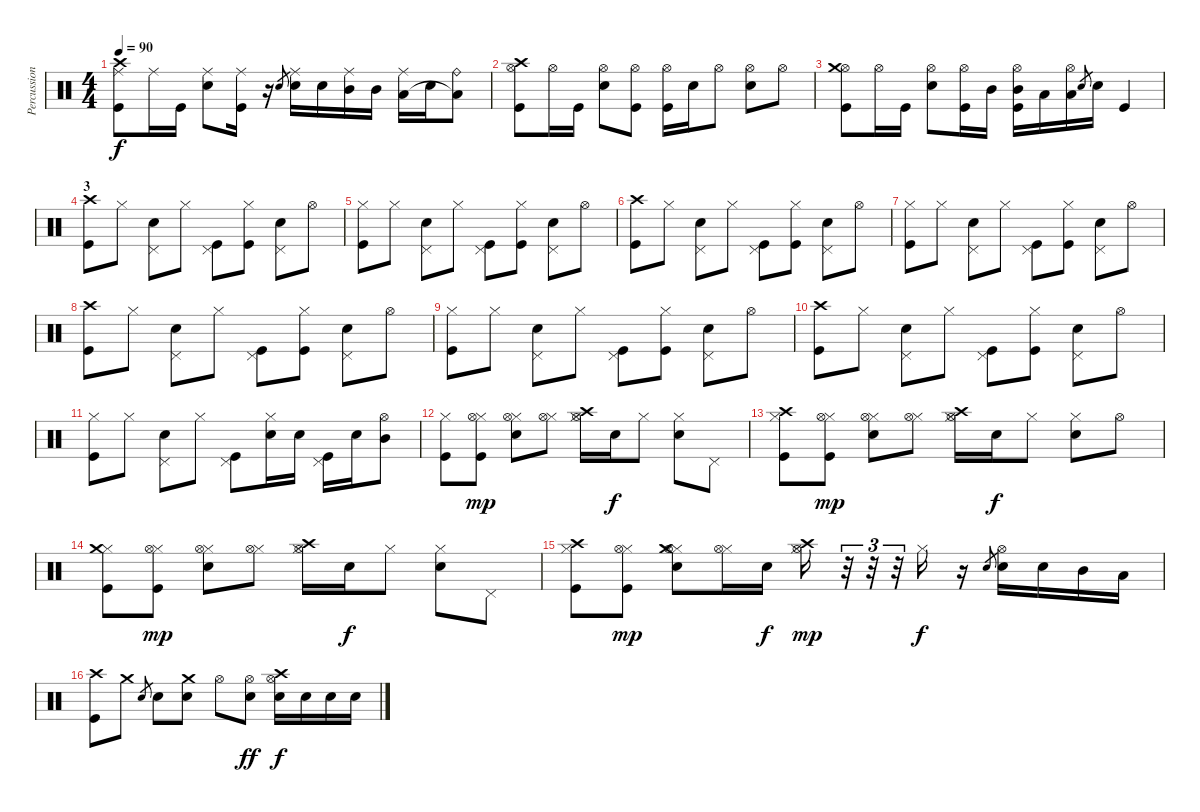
\track ("Percussions" "Percussion") {instrument percussion}
\staff {score}
\articulation defaults
\ts (4 4)
\tempo 90
\clef neutral
\ks c
("Ride (middle)" "Crash high (hit)" "Kick (hit)").8{dy f} "Ride (middle)".16 "Kick (hit)".16 ("Ride (middle)" "Snare (hit) 2").8 ("Ride (middle)" "Kick (hit)").16 r.16 "Snare (hit) 2".8{gr} ("Ride (middle)" "Snare (hit) 2").16 "Snare (hit) 2".16 ("Ride (middle)" "Mid Tom (hit)").16 "Mid Tom (hit)".16 ("Ride (middle)" "Low Tom (hit)").16 "Snare (hit) 2".16 ("Ride (bell)" "Low Tom (hit)"{t}).8 |
("Hi-Hat (open)" "Crash high (hit)" "Kick (hit)").8 "Hi-Hat (open)".16 "Kick (hit)".16 ("Hi-Hat (open)" "Snare (hit) 2").8 ("Hi-Hat (open)" "Kick (hit)").8 ("Hi-Hat (open)" "Kick (hit)").16 "Snare (hit) 2".16 "Hi-Hat (open)".8 ("Hi-Hat (open)" "Snare (hit) 2").8 "Hi-Hat (open)".8 |
("Hi-Hat (open)" "Crash medium (hit)" "Kick (hit)").8 "Hi-Hat (open)".16 "Kick (hit)".16 ("Hi-Hat (open)" "Snare (hit) 2").8 ("Hi-Hat (open)" "Kick (hit)").16 "Mid Tom (hit)".16 ("Hi-Hat (open)" "Mid Tom (hit)" "Kick (hit)").16 "Low Tom (hit)".16 ("Hi-Hat (open)" "Low Tom (hit)").16 "Snare (hit) 2".8{gr} "Snare (hit) 2".16 "Kick (hit)".4 |
\section ("" "3")
("Crash high (hit)" "Kick (hit)").8 "Hi-Hat (closed)".8 ("Pedal Hi-Hat (hit)" "Snare (hit) 2").8 "Hi-Hat (closed)".8 ("Pedal Hi-Hat (hit)" "Kick (hit)").8 ("Hi-Hat (closed)" "Kick (hit)").8 ("Pedal Hi-Hat (hit)" "Snare (hit) 2").8 "Hi-Hat (open)".8 |
("Hi-Hat (closed)" "Kick (hit)").8 "Hi-Hat (closed)".8 ("Pedal Hi-Hat (hit)" "Snare (hit) 2").8 "Hi-Hat (closed)".8 ("Pedal Hi-Hat (hit)" "Kick (hit)").8 ("Hi-Hat (closed)" "Kick (hit)").8 ("Pedal Hi-Hat (hit)" "Snare (hit) 2").8 "Hi-Hat (open)".8 |
("Crash high (hit)" "Kick (hit)").8 "Hi-Hat (closed)".8 ("Pedal Hi-Hat (hit)" "Snare (hit) 2").8 "Hi-Hat (closed)".8 ("Pedal Hi-Hat (hit)" "Kick (hit)").8 ("Hi-Hat (closed)" "Kick (hit)").8 ("Pedal Hi-Hat (hit)" "Snare (hit) 2").8 "Hi-Hat (open)".8 |
("Hi-Hat (closed)" "Kick (hit)").8 "Hi-Hat (closed)".8 ("Pedal Hi-Hat (hit)" "Snare (hit) 2").8 "Hi-Hat (closed)".8 ("Pedal Hi-Hat (hit)" "Kick (hit)").8 ("Hi-Hat (closed)" "Kick (hit)").8 ("Pedal Hi-Hat (hit)" "Snare (hit) 2").8 "Hi-Hat (open)".8 |
("Crash high (hit)" "Kick (hit)").8 "Hi-Hat (closed)".8 ("Pedal Hi-Hat (hit)" "Snare (hit) 2").8 "Hi-Hat (closed)".8 ("Pedal Hi-Hat (hit)" "Kick (hit)").8 ("Hi-Hat (closed)" "Kick (hit)").8 ("Pedal Hi-Hat (hit)" "Snare (hit) 2").8 "Hi-Hat (open)".8 |
("Hi-Hat (closed)" "Kick (hit)").8 "Hi-Hat (closed)".8 ("Pedal Hi-Hat (hit)" "Snare (hit) 2").8 "Hi-Hat (closed)".8 ("Pedal Hi-Hat (hit)" "Kick (hit)").8 ("Hi-Hat (closed)" "Kick (hit)").8 ("Pedal Hi-Hat (hit)" "Snare (hit) 2").8 "Hi-Hat (open)".8 |
("Crash high (hit)" "Kick (hit)").8 "Hi-Hat (closed)".8 ("Pedal Hi-Hat (hit)" "Snare (hit) 2").8 "Hi-Hat (closed)".8 ("Pedal Hi-Hat (hit)" "Kick (hit)").8 ("Hi-Hat (closed)" "Kick (hit)").8 ("Pedal Hi-Hat (hit)" "Snare (hit) 2").8 "Hi-Hat (open)".8 |
("Hi-Hat (closed)" "Kick (hit)").8 "Hi-Hat (closed)".8 ("Pedal Hi-Hat (hit)" "Snare (hit) 2").8 "Hi-Hat (closed)".8{volume 16} ("Pedal Hi-Hat (hit)" "Kick (hit)").8 ("Hi-Hat (closed)" "Snare (hit) 2").16 "Snare (hit) 2".16 ("Pedal Hi-Hat (hit)" "Kick (hit)").16 "Snare (hit) 2".16 ("Mid Tom (hit)" "Hi-Hat (open)").8 |
("Hi-Hat (closed)" "Kick (hit)").8 ("Hi-Hat (closed)" "Hi-Hat (open)" "Kick (hit)").8{dy mp} ("Hi-Hat (closed)" "Hi-Hat (open)" "Snare (hit) 2").8 ("Hi-Hat (closed)" "Hi-Hat (open)").8 ("Hi-Hat (closed)" "Hi-Hat (open)" "Crash high (hit)").16 "Snare (hit) 2".16{dy f} "Hi-Hat (closed)".8 ("Hi-Hat (closed)" "Snare (hit) 2").8 "Pedal Hi-Hat (hit)".8 |
("Hi-Hat (closed)" "Crash high (hit)" "Kick (hit)").8 ("Hi-Hat (closed)" "Hi-Hat (open)" "Kick (hit)").8{dy mp} ("Hi-Hat (closed)" "Hi-Hat (open)" "Snare (hit) 2").8 ("Hi-Hat (closed)" "Hi-Hat (open)").8 ("Hi-Hat (closed)" "Hi-Hat (open)" "Crash high (hit)").16 "Snare (hit) 2".16{dy f} "Hi-Hat (closed)".8 ("Hi-Hat (closed)" "Snare (hit) 2").8 "Hi-Hat (open)".8 |
("Hi-Hat (closed)" "Crash medium (hit)" "Kick (hit)").8 ("Hi-Hat (closed)" "Hi-Hat (open)" "Kick (hit)").8{dy mp} ("Hi-Hat (closed)" "Hi-Hat (open)" "Snare (hit) 2").8 ("Hi-Hat (closed)" "Hi-Hat (open)").8 ("Hi-Hat (closed)" "Hi-Hat (open)" "Crash high (hit)").16 "Snare (hit) 2".16{dy f} "Hi-Hat (closed)".8 ("Hi-Hat (closed)" "Snare (hit) 2").8 "Pedal Hi-Hat (hit)".8 |
("Hi-Hat (closed)" "Crash high (hit)" "Kick (hit)").8 ("Hi-Hat (closed)" "Hi-Hat (open)" "Kick (hit)").8{dy mp} ("Hi-Hat (closed)" "Hi-Hat (open)" "Crash medium (hit)" "Snare (hit) 2").8 ("Hi-Hat (closed)" "Hi-Hat (open)").16 "Snare (hit) 2".16{dy f} ("Hi-Hat (closed)" "Hi-Hat (open)" "Crash high (hit)").16{dy mp} r.32{tu (3 2)} r.32{tu (3 2)} r.32{tu (3 2)} "Hi-Hat (closed)".16{dy f} r.16 "Snare (hit) 2".8{gr} ("Hi-Hat (open)" "Snare (hit) 2").16 "Snare (hit) 2".16 "Mid Tom (hit)".16 "Low Tom (hit)".16 |
("Crash high (hit)" "Kick (hit)").8 "Crash medium (hit)".8 "Snare (hit) 2".8{gr} "Snare (hit) 2".8 ("Crash medium (hit)" "Snare (hit) 2").8 "Hi-Hat (open)".8 ("Hi-Hat (open)" "Snare (hit) 2").8{dy ff} ("Crash high (hit)" "Hi-Hat (open)" "Snare (hit) 2").16{dy f} "Snare (hit) 2".16 "Snare (hit) 2".16 "Snare (hit) 2".16
